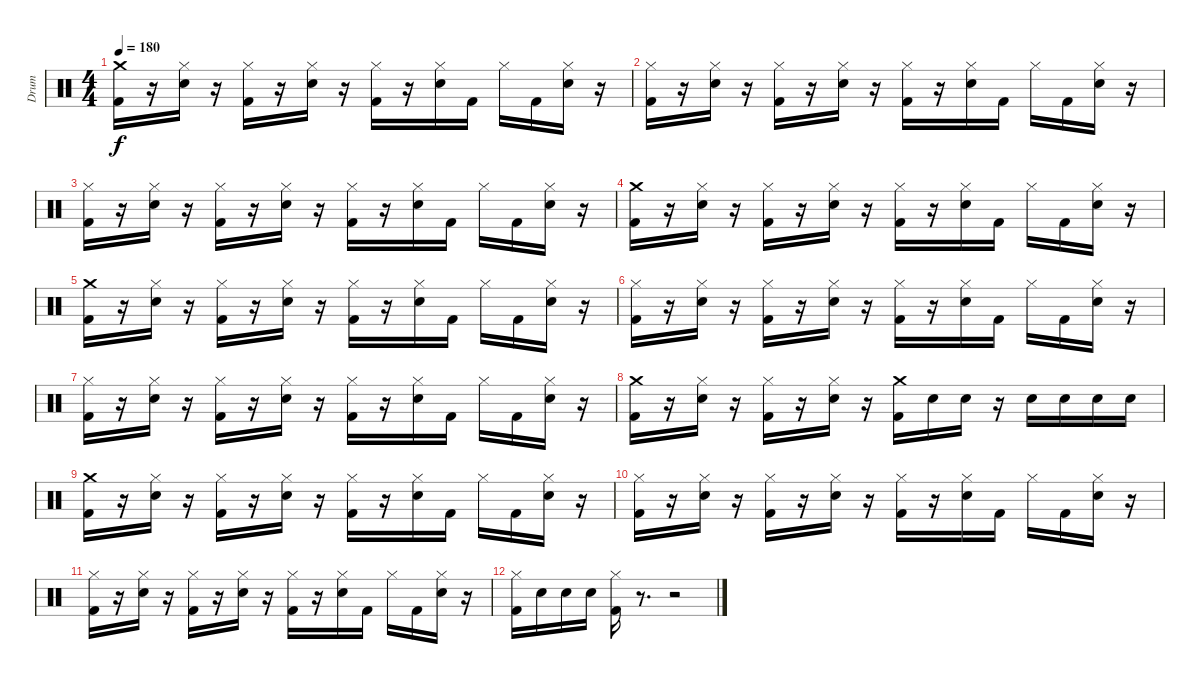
\track ("Drum" "Drum") {instrument percussion}
\staff {score}
\articulation defaults
\ts (4 4)
\tempo 180
\clef neutral
\ks c
("Crash medium (hit)" "Kick (hit) 2").16{dy f} r.16 ("Hi-Hat (closed)" "Electric Snare (hit)").16 r.16 ("Hi-Hat (closed)" "Kick (hit) 2").16 r.16 ("Hi-Hat (closed)" "Electric Snare (hit)").16 r.16 ("Hi-Hat (closed)" "Kick (hit) 2").16 r.16 ("Hi-Hat (closed)" "Electric Snare (hit)").16 "Kick (hit) 2".16 "Hi-Hat (closed)".16 "Kick (hit) 2".16 ("Hi-Hat (closed)" "Electric Snare (hit)").16 r.16 |
("Hi-Hat (closed)" "Kick (hit) 2").16 r.16 ("Hi-Hat (closed)" "Electric Snare (hit)").16 r.16 ("Hi-Hat (closed)" "Kick (hit) 2").16 r.16 ("Hi-Hat (closed)" "Electric Snare (hit)").16 r.16 ("Hi-Hat (closed)" "Kick (hit) 2").16 r.16 ("Hi-Hat (closed)" "Electric Snare (hit)").16 "Kick (hit) 2".16 "Hi-Hat (closed)".16 "Kick (hit) 2".16 ("Hi-Hat (closed)" "Electric Snare (hit)").16 r.16 |
("Hi-Hat (closed)" "Kick (hit) 2").16 r.16 ("Hi-Hat (closed)" "Electric Snare (hit)").16 r.16 ("Hi-Hat (closed)" "Kick (hit) 2").16 r.16 ("Hi-Hat (closed)" "Electric Snare (hit)").16 r.16 ("Hi-Hat (closed)" "Kick (hit) 2").16 r.16 ("Hi-Hat (closed)" "Electric Snare (hit)").16 "Kick (hit) 2".16 "Hi-Hat (closed)".16 "Kick (hit) 2".16 ("Hi-Hat (closed)" "Electric Snare (hit)").16 r.16 |
("Crash medium (hit)" "Kick (hit) 2").16 r.16 ("Hi-Hat (closed)" "Electric Snare (hit)").16 r.16 ("Hi-Hat (closed)" "Kick (hit) 2").16 r.16 ("Hi-Hat (closed)" "Electric Snare (hit)").16 r.16 ("Hi-Hat (closed)" "Kick (hit) 2").16 r.16 ("Hi-Hat (closed)" "Electric Snare (hit)").16 "Kick (hit) 2".16 "Hi-Hat (closed)".16 "Kick (hit) 2".16 ("Hi-Hat (closed)" "Electric Snare (hit)").16 r.16 |
("Crash medium (hit)" "Kick (hit) 2").16 r.16 ("Hi-Hat (closed)" "Electric Snare (hit)").16 r.16 ("Hi-Hat (closed)" "Kick (hit) 2").16 r.16 ("Hi-Hat (closed)" "Electric Snare (hit)").16 r.16 ("Hi-Hat (closed)" "Kick (hit) 2").16 r.16 ("Hi-Hat (closed)" "Electric Snare (hit)").16 "Kick (hit) 2".16 "Hi-Hat (closed)".16 "Kick (hit) 2".16 ("Hi-Hat (closed)" "Electric Snare (hit)").16 r.16 |
("Hi-Hat (closed)" "Kick (hit) 2").16 r.16 ("Hi-Hat (closed)" "Electric Snare (hit)").16 r.16 ("Hi-Hat (closed)" "Kick (hit) 2").16 r.16 ("Hi-Hat (closed)" "Electric Snare (hit)").16 r.16 ("Hi-Hat (closed)" "Kick (hit) 2").16 r.16 ("Hi-Hat (closed)" "Electric Snare (hit)").16 "Kick (hit) 2".16 "Hi-Hat (closed)".16 "Kick (hit) 2".16 ("Hi-Hat (closed)" "Electric Snare (hit)").16 r.16 |
("Hi-Hat (closed)" "Kick (hit) 2").16 r.16 ("Hi-Hat (closed)" "Electric Snare (hit)").16 r.16 ("Hi-Hat (closed)" "Kick (hit) 2").16 r.16 ("Hi-Hat (closed)" "Electric Snare (hit)").16 r.16 ("Hi-Hat (closed)" "Kick (hit) 2").16 r.16 ("Hi-Hat (closed)" "Electric Snare (hit)").16 "Kick (hit) 2".16 "Hi-Hat (closed)".16 "Kick (hit) 2".16 ("Hi-Hat (closed)" "Electric Snare (hit)").16 r.16 |
("Crash medium (hit)" "Kick (hit) 2").16 r.16 ("Hi-Hat (closed)" "Electric Snare (hit)").16 r.16 ("Hi-Hat (closed)" "Kick (hit) 2").16 r.16 ("Hi-Hat (closed)" "Electric Snare (hit)").16 r.16 ("Crash medium (hit)" "Kick (hit) 2").16 "Electric Snare (hit)".16 "Electric Snare (hit)".16 r.16 "Electric Snare (hit)".16 "Electric Snare (hit)".16 "Electric Snare (hit)".16 "Electric Snare (hit)".16 |
("Crash medium (hit)" "Kick (hit) 2").16 r.16 ("Hi-Hat (closed)" "Electric Snare (hit)").16 r.16 ("Hi-Hat (closed)" "Kick (hit) 2").16 r.16 ("Hi-Hat (closed)" "Electric Snare (hit)").16 r.16 ("Hi-Hat (closed)" "Kick (hit) 2").16 r.16 ("Hi-Hat (closed)" "Electric Snare (hit)").16 "Kick (hit) 2".16 "Hi-Hat (closed)".16 "Kick (hit) 2".16 ("Hi-Hat (closed)" "Electric Snare (hit)").16 r.16 |
("Hi-Hat (closed)" "Kick (hit) 2").16 r.16 ("Hi-Hat (closed)" "Electric Snare (hit)").16 r.16 ("Hi-Hat (closed)" "Kick (hit) 2").16 r.16 ("Hi-Hat (closed)" "Electric Snare (hit)").16 r.16 ("Hi-Hat (closed)" "Kick (hit) 2").16 r.16 ("Hi-Hat (closed)" "Electric Snare (hit)").16 "Kick (hit) 2".16 "Hi-Hat (closed)".16 "Kick (hit) 2".16 ("Hi-Hat (closed)" "Electric Snare (hit)").16 r.16 |
("Hi-Hat (closed)" "Kick (hit) 2").16 r.16 ("Hi-Hat (closed)" "Electric Snare (hit)").16 r.16 ("Hi-Hat (closed)" "Kick (hit) 2").16 r.16 ("Hi-Hat (closed)" "Electric Snare (hit)").16 r.16 ("Hi-Hat (closed)" "Kick (hit) 2").16 r.16 ("Hi-Hat (closed)" "Electric Snare (hit)").16 "Kick (hit) 2".16 "Hi-Hat (closed)".16 "Kick (hit) 2".16 ("Hi-Hat (closed)" "Electric Snare (hit)").16 r.16 |
("Hi-Hat (closed)" "Kick (hit) 2").16 "Electric Snare (hit)".16 "Electric Snare (hit)".16 "Electric Snare (hit)".16 ("Hi-Hat (closed)" "Kick (hit) 2").16 r.8{d} r.2
